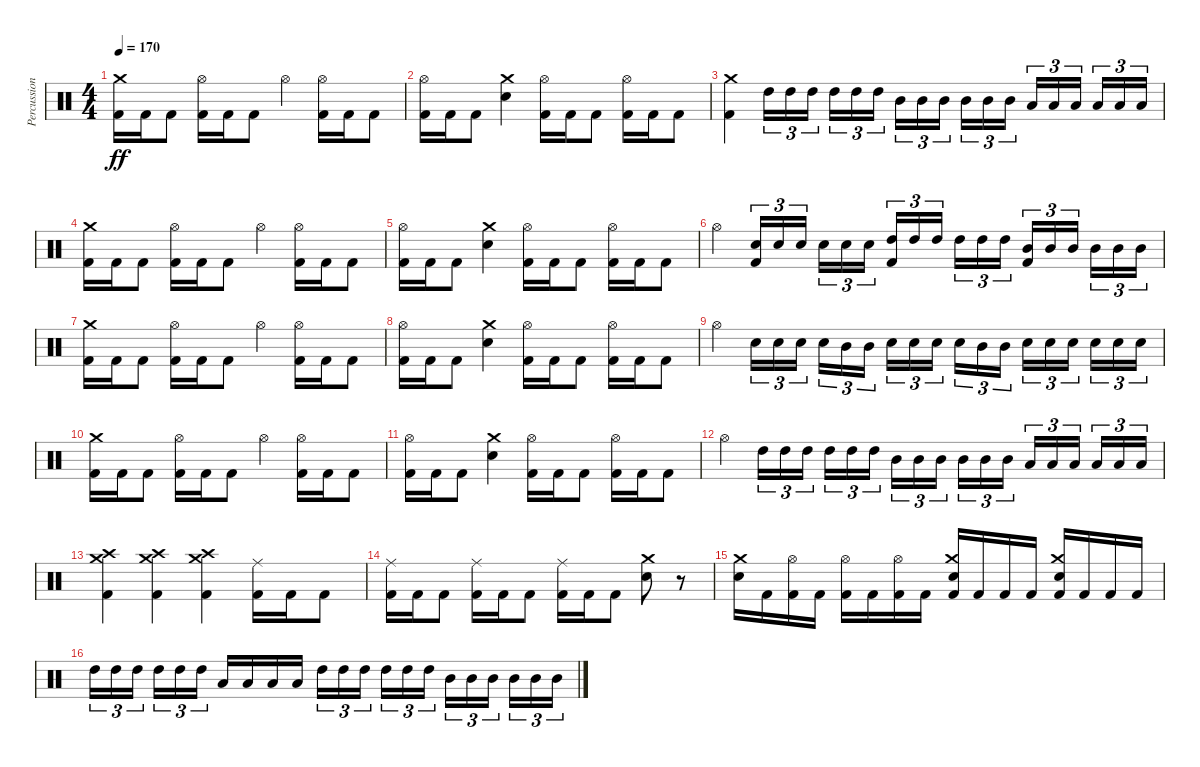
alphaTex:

\track ("Percussion" "Percussion") {instrument percussion}
\staff {score}
\articulation defaults
\ts (4 4)
\tempo 170
\clef neutral
\ks c
("Kick (hit) 2" "Crash medium (hit)").16{dy ff} "Kick (hit) 2".16 "Kick (hit) 2".8 ("Kick (hit) 2" "Hi-Hat (open)").16 "Kick (hit) 2".16 "Kick (hit) 2".8 "Hi-Hat (open)".4 ("Kick (hit) 2" "Hi-Hat (open)").16 "Kick (hit) 2".16 "Kick (hit) 2".8 |
("Kick (hit) 2" "Hi-Hat (open)").16 "Kick (hit) 2".16 "Kick (hit) 2".8 ("Electric Snare (hit)" "Crash medium (hit)").4 ("Kick (hit) 2" "Hi-Hat (open)").16 "Kick (hit) 2".16 "Kick (hit) 2".8 ("Kick (hit) 2" "Hi-Hat (open)").16 "Kick (hit) 2".16 "Kick (hit) 2".8 |
("Kick (hit) 2" "Crash medium (hit)").4 "High Tom (hit)".16{tu (3 2)} "High Tom (hit)".16{tu (3 2)} "High Tom (hit)".16{tu (3 2)} "High Tom (hit)".16{tu (3 2)} "High Tom (hit)".16{tu (3 2)} "High Tom (hit)".16{tu (3 2)} "Mid Tom (hit)".16{tu (3 2)} "Mid Tom (hit)".16{tu (3 2)} "Mid Tom (hit)".16{tu (3 2)} "Mid Tom (hit)".16{tu (3 2)} "Mid Tom (hit)".16{tu (3 2)} "Mid Tom (hit)".16{tu (3 2)} "Low Tom (hit)".16{tu (3 2)} "Low Tom (hit)".16{tu (3 2)} "Low Tom (hit)".16{tu (3 2)} "Low Tom (hit)".16{tu (3 2)} "Low Tom (hit)".16{tu (3 2)} "Low Tom (hit)".16{tu (3 2)} |
("Kick (hit) 2" "Crash medium (hit)").16 "Kick (hit) 2".16 "Kick (hit) 2".8 ("Kick (hit) 2" "Hi-Hat (open)").16 "Kick (hit) 2".16 "Kick (hit) 2".8 "Hi-Hat (open)".4 ("Kick (hit) 2" "Hi-Hat (open)").16 "Kick (hit) 2".16 "Kick (hit) 2".8 |
("Kick (hit) 2" "Hi-Hat (open)").16 "Kick (hit) 2".16 "Kick (hit) 2".8 ("Electric Snare (hit)" "Crash medium (hit)").4 ("Kick (hit) 2" "Hi-Hat (open)").16 "Kick (hit) 2".16 "Kick (hit) 2".8 ("Kick (hit) 2" "Hi-Hat (open)").16 "Kick (hit) 2".16 "Kick (hit) 2".8 |
"Hi-Hat (open)".4 ("Electric Snare (hit)" "Kick (hit) 2").16{tu (3 2)} "Electric Snare (hit)".16{tu (3 2)} "Electric Snare (hit)".16{tu (3 2)} "Electric Snare (hit)".16{tu (3 2)} "Electric Snare (hit)".16{tu (3 2)} "Electric Snare (hit)".16{tu (3 2)} ("High Tom (hit)" "Kick (hit) 2").16{tu (3 2)} "High Tom (hit)".16{tu (3 2)} "High Tom (hit)".16{tu (3 2)} "High Tom (hit)".16{tu (3 2)} "High Tom (hit)".16{tu (3 2)} "High Tom (hit)".16{tu (3 2)} ("Mid Tom (hit)" "Kick (hit) 2").16{tu (3 2)} "Mid Tom (hit)".16{tu (3 2)} "Mid Tom (hit)".16{tu (3 2)} "Mid Tom (hit)".16{tu (3 2)} "Mid Tom (hit)".16{tu (3 2)} "Mid Tom (hit)".16{tu (3 2)} |
("Kick (hit) 2" "Crash medium (hit)").16 "Kick (hit) 2".16 "Kick (hit) 2".8 ("Kick (hit) 2" "Hi-Hat (open)").16 "Kick (hit) 2".16 "Kick (hit) 2".8 "Hi-Hat (open)".4 ("Kick (hit) 2" "Hi-Hat (open)").16 "Kick (hit) 2".16 "Kick (hit) 2".8 |
("Kick (hit) 2" "Hi-Hat (open)").16 "Kick (hit) 2".16 "Kick (hit) 2".8 ("Electric Snare (hit)" "Crash medium (hit)").4 ("Kick (hit) 2" "Hi-Hat (open)").16 "Kick (hit) 2".16 "Kick (hit) 2".8 ("Kick (hit) 2" "Hi-Hat (open)").16 "Kick (hit) 2".16 "Kick (hit) 2".8 |
"Hi-Hat (open)".4 "Electric Snare (hit)".16{tu (3 2)} "Electric Snare (hit)".16{tu (3 2)} "Electric Snare (hit)".16{tu (3 2)} "Electric Snare (hit)".16{tu (3 2)} "Mid Tom (hit)".16{tu (3 2)} "Mid Tom (hit)".16{tu (3 2)} "Electric Snare (hit)".16{tu (3 2)} "Electric Snare (hit)".16{tu (3 2)} "Electric Snare (hit)".16{tu (3 2)} "Electric Snare (hit)".16{tu (3 2)} "Mid Tom (hit)".16{tu (3 2)} "Mid Tom (hit)".16{tu (3 2)} "Electric Snare (hit)".16{tu (3 2)} "Electric Snare (hit)".16{tu (3 2)} "Electric Snare (hit)".16{tu (3 2)} "Electric Snare (hit)".16{tu (3 2)} "Electric Snare (hit)".16{tu (3 2)} "Electric Snare (hit)".16{tu (3 2)} |
("Kick (hit) 2" "Crash medium (hit)").16 "Kick (hit) 2".16 "Kick (hit) 2".8 ("Kick (hit) 2" "Hi-Hat (open)").16 "Kick (hit) 2".16 "Kick (hit) 2".8 "Hi-Hat (open)".4 ("Kick (hit) 2" "Hi-Hat (open)").16 "Kick (hit) 2".16 "Kick (hit) 2".8 |
("Kick (hit) 2" "Hi-Hat (open)").16 "Kick (hit) 2".16 "Kick (hit) 2".8 ("Electric Snare (hit)" "Crash medium (hit)").4 ("Kick (hit) 2" "Hi-Hat (open)").16 "Kick (hit) 2".16 "Kick (hit) 2".8 ("Kick (hit) 2" "Hi-Hat (open)").16 "Kick (hit) 2".16 "Kick (hit) 2".8 |
"Hi-Hat (open)".4 "High Tom (hit)".16{tu (3 2)} "High Tom (hit)".16{tu (3 2)} "High Tom (hit)".16{tu (3 2)} "High Tom (hit)".16{tu (3 2)} "High Tom (hit)".16{tu (3 2)} "High Tom (hit)".16{tu (3 2)} "Mid Tom (hit)".16{tu (3 2)} "Mid Tom (hit)".16{tu (3 2)} "Mid Tom (hit)".16{tu (3 2)} "Mid Tom (hit)".16{tu (3 2)} "Mid Tom (hit)".16{tu (3 2)} "Mid Tom (hit)".16{tu (3 2)} "Low Tom (hit)".16{tu (3 2)} "Low Tom (hit)".16{tu (3 2)} "Low Tom (hit)".16{tu (3 2)} "Low Tom (hit)".16{tu (3 2)} "Low Tom (hit)".16{tu (3 2)} "Low Tom (hit)".16{tu (3 2)} |
("Kick (hit) 2" "Crash medium (hit)" "Crash high (hit)").4 ("Kick (hit) 2" "Crash medium (hit)" "Crash high (hit)").4 ("Kick (hit) 2" "Crash medium (hit)" "Crash high (hit)").4 ("Kick (hit) 2" "Ride (middle)").16 "Kick (hit) 2".16 "Kick (hit) 2".8 |
("Kick (hit) 2" "Ride (middle)").16 "Kick (hit) 2".16 "Kick (hit) 2".8 ("Kick (hit) 2" "Ride (middle)").16 "Kick (hit) 2".16 "Kick (hit) 2".8 ("Kick (hit) 2" "Ride (middle)").16 "Kick (hit) 2".16 "Kick (hit) 2".8 ("Crash medium (hit)" "Electric Snare (hit)").8 r.8 |
("Crash medium (hit)" "Electric Snare (hit)").16 "Kick (hit) 2".16 ("Kick (hit) 2" "Hi-Hat (open)").16 "Kick (hit) 2".16 ("Kick (hit) 2" "Hi-Hat (open)").16 "Kick (hit) 2".16 ("Kick (hit) 2" "Hi-Hat (open)").16 "Kick (hit) 2".16 ("Kick (hit) 2" "Crash medium (hit)" "Electric Snare (hit)").16 "Kick (hit) 2".16 "Kick (hit) 2".16 "Kick (hit) 2".16 ("Kick (hit) 2" "Crash medium (hit)" "Electric Snare (hit)").16 "Kick (hit) 2".16 "Kick (hit) 2".16 "Kick (hit) 2".16 |
"High Tom (hit)".16{tu (3 2)} "High Tom (hit)".16{tu (3 2)} "High Tom (hit)".16{tu (3 2)} "High Tom (hit)".16{tu (3 2)} "High Tom (hit)".16{tu (3 2)} "High Tom (hit)".16{tu (3 2)} "Low Tom (hit)".16 "Low Tom (hit)".16 "Low Tom (hit)".16 "Low Tom (hit)".16 "High Tom (hit)".16{tu (3 2)} "High Tom (hit)".16{tu (3 2)} "High Tom (hit)".16{tu (3 2)} "High Tom (hit)".16{tu (3 2)} "High Tom (hit)".16{tu (3 2)} "High Tom (hit)".16{tu (3 2)} "Mid Tom (hit)".16{tu (3 2)} "Mid Tom (hit)".16{tu (3 2)} "Mid Tom (hit)".16{tu (3 2)} "Mid Tom (hit)".16{tu (3 2)} "Mid Tom (hit)".16{tu (3 2)} "Mid Tom (hit)".16{tu (3 2)}
